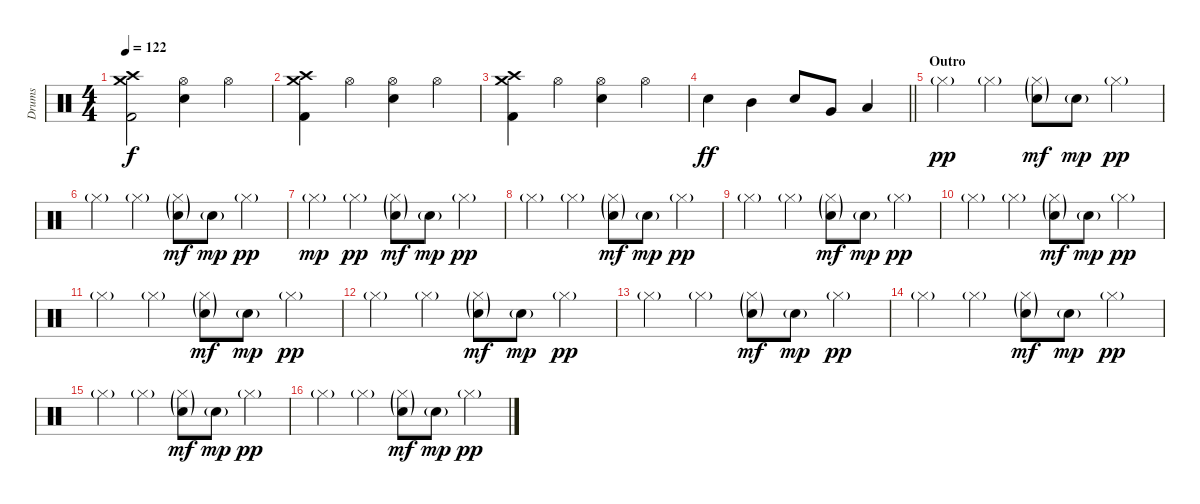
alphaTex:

\track ("Drums" "Drums") {instrument percussion}
\staff {score}
\articulation defaults
\ts (4 4)
\tempo 122
\clef neutral
\ks c
("Crash high (hit)" "Crash medium (hit)" "Kick (hit) 2").2{dy f} ("Hi-Hat (open)" "Electric Snare (hit)").4 "Hi-Hat (open)".4 |
("Crash high (hit)" "Crash medium (hit)" "Kick (hit) 2").4 "Hi-Hat (open)".4 ("Hi-Hat (open)" "Electric Snare (hit)").4 "Hi-Hat (open)".4 |
("Crash high (hit)" "Crash medium (hit)" "Kick (hit) 2").4 "Hi-Hat (open)".4 ("Hi-Hat (open)" "Electric Snare (hit)").4 "Hi-Hat (open)".4 |
\barLineRight lightlight "Electric Snare (hit)".4{dy ff} "Mid Tom (hit)".4 "Electric Snare (hit)".8 "Very Low Tom (hit)".8 "Low Floor Tom (hit)".4
|
\section ("" "Outro")
"Hi-Hat (closed)"{g}.4{dy pp} "Hi-Hat (closed)"{g}.4 ("Hi-Hat (closed)"{g} "Electric Snare (hit)"{g}).8{dy mf} "Electric Snare (hit)"{g}.8{dy mp} "Hi-Hat (closed)"{g}.4{dy pp} |
"Hi-Hat (closed)"{g}.4 "Hi-Hat (closed)"{g}.4 ("Hi-Hat (closed)"{g} "Electric Snare (hit)"{g}).8{dy mf} "Electric Snare (hit)"{g}.8{dy mp} "Hi-Hat (closed)"{g}.4{dy pp} |
"Hi-Hat (closed)"{g}.4{dy mp} "Hi-Hat (closed)"{g}.4{dy pp} ("Hi-Hat (closed)"{g} "Electric Snare (hit)"{g}).8{dy mf} "Electric Snare (hit)"{g}.8{dy mp} "Hi-Hat (closed)"{g}.4{dy pp} |
"Hi-Hat (closed)"{g}.4 "Hi-Hat (closed)"{g}.4 ("Hi-Hat (closed)"{g} "Electric Snare (hit)"{g}).8{dy mf} "Electric Snare (hit)"{g}.8{dy mp} "Hi-Hat (closed)"{g}.4{dy pp} |
"Hi-Hat (closed)"{g}.4 "Hi-Hat (closed)"{g}.4 ("Hi-Hat (closed)"{g} "Electric Snare (hit)"{g}).8{dy mf} "Electric Snare (hit)"{g}.8{dy mp} "Hi-Hat (closed)"{g}.4{dy pp} |
"Hi-Hat (closed)"{g}.4 "Hi-Hat (closed)"{g}.4 ("Hi-Hat (closed)"{g} "Electric Snare (hit)"{g}).8{dy mf} "Electric Snare (hit)"{g}.8{dy mp} "Hi-Hat (closed)"{g}.4{dy pp} |
"Hi-Hat (closed)"{g}.4 "Hi-Hat (closed)"{g}.4 ("Hi-Hat (closed)"{g} "Electric Snare (hit)"{g}).8{dy mf} "Electric Snare (hit)"{g}.8{dy mp} "Hi-Hat (closed)"{g}.4{dy pp} |
"Hi-Hat (closed)"{g}.4 "Hi-Hat (closed)"{g}.4 ("Hi-Hat (closed)"{g} "Electric Snare (hit)"{g}).8{dy mf} "Electric Snare (hit)"{g}.8{dy mp} "Hi-Hat (closed)"{g}.4{dy pp} |
"Hi-Hat (closed)"{g}.4 "Hi-Hat (closed)"{g}.4 ("Hi-Hat (closed)"{g} "Electric Snare (hit)"{g}).8{dy mf} "Electric Snare (hit)"{g}.8{dy mp} "Hi-Hat (closed)"{g}.4{dy pp} |
"Hi-Hat (closed)"{g}.4 "Hi-Hat (closed)"{g}.4 ("Hi-Hat (closed)"{g} "Electric Snare (hit)"{g}).8{dy mf} "Electric Snare (hit)"{g}.8{dy mp} "Hi-Hat (closed)"{g}.4{dy pp} |
"Hi-Hat (closed)"{g}.4 "Hi-Hat (closed)"{g}.4 ("Hi-Hat (closed)"{g} "Electric Snare (hit)"{g}).8{dy mf} "Electric Snare (hit)"{g}.8{dy mp} "Hi-Hat (closed)"{g}.4{dy pp} |
"Hi-Hat (closed)"{g}.4 "Hi-Hat (closed)"{g}.4 ("Hi-Hat (closed)"{g} "Electric Snare (hit)"{g}).8{dy mf} "Electric Snare (hit)"{g}.8{dy mp} "Hi-Hat (closed)"{g}.4{dy pp}
